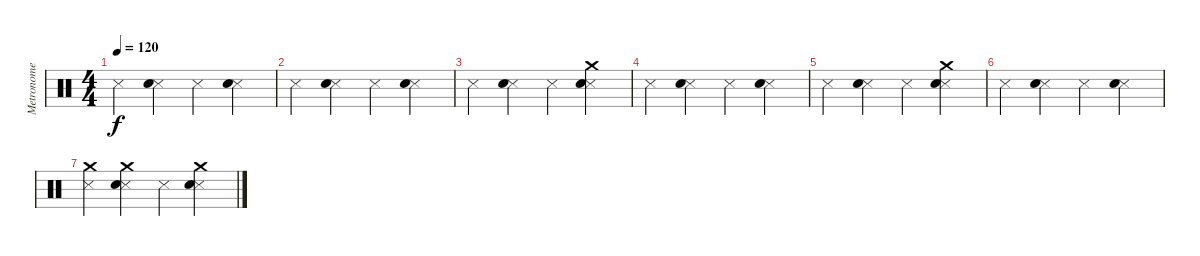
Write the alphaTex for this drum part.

\track ("Metronome" "Metronome") {instrument percussion}
\staff {score}
\articulation defaults
\ts (4 4)
\tempo 120
\clef neutral
\ks c "Snare (side stick) 3".4{dy f}
("Snare (side stick) 3" "Snare (hit) 2").4 "Snare (side stick) 3".4 ("Snare (side stick) 3" "Snare (hit) 2").4 |
"Snare (side stick) 3".4 ("Snare (side stick) 3" "Snare (hit) 2").4 "Snare (side stick) 3".4 ("Snare (side stick) 3" "Snare (hit) 2").4 |
"Snare (side stick) 3".4 ("Snare (side stick) 3" "Snare (hit) 2").4 "Snare (side stick) 3".4 ("Snare (side stick) 3" "Snare (hit) 2" "Crash medium (hit)").4 |
"Snare (side stick) 3".4 ("Snare (side stick) 3" "Snare (hit) 2").4 "Snare (side stick) 3".4 ("Snare (side stick) 3" "Snare (hit) 2").4 |
"Snare (side stick) 3".4 ("Snare (side stick) 3" "Snare (hit) 2").4 "Snare (side stick) 3".4 ("Snare (side stick) 3" "Snare (hit) 2" "Crash medium (hit)").4 |
"Snare (side stick) 3".4 ("Snare (side stick) 3" "Snare (hit) 2").4 "Snare (side stick) 3".4 ("Snare (side stick) 3" "Snare (hit) 2").4 |
("Snare (side stick) 3" "Crash medium (hit)").4 ("Snare (side stick) 3" "Snare (hit) 2" "Crash medium (hit)").4 "Snare (side stick) 3".4 ("Snare (side stick) 3" "Snare (hit) 2" "Crash medium (hit)").4
